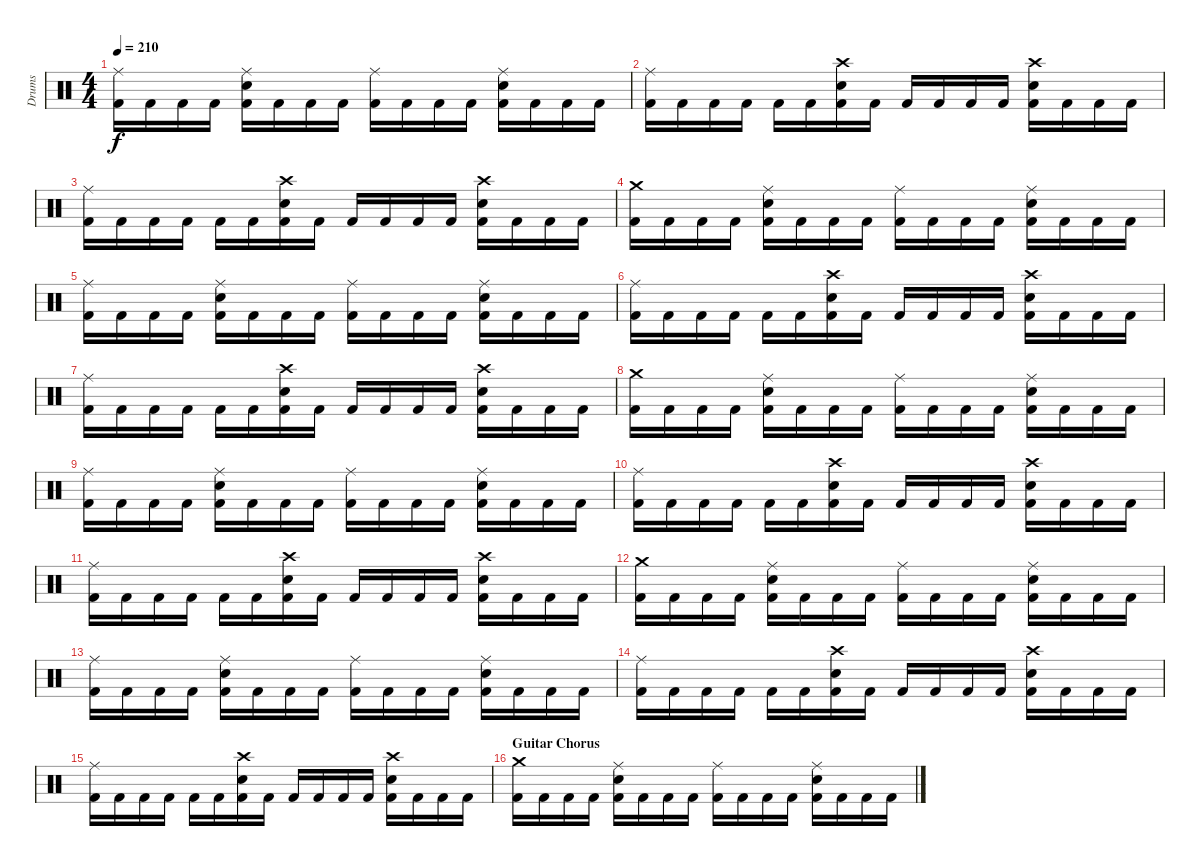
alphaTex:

\track ("Drums" "Drums") {instrument percussion}
\staff {score}
\articulation defaults
\ts (4 4)
\tempo 210
\clef neutral
\ks c
("Ride (middle)" "Kick (hit) 2").16{dy f} "Kick (hit) 2".16 "Kick (hit) 2".16 "Kick (hit) 2".16 ("Ride (middle)" "Snare (hit) 2" "Kick (hit) 2").16 "Kick (hit) 2".16 "Kick (hit) 2".16 "Kick (hit) 2".16 ("Ride (middle)" "Kick (hit) 2").16 "Kick (hit) 2".16 "Kick (hit) 2".16 "Kick (hit) 2".16 ("Ride (middle)" "Snare (hit) 2" "Kick (hit) 2").16 "Kick (hit) 2".16 "Kick (hit) 2".16 "Kick (hit) 2".16 |
("Ride (middle)" "Kick (hit) 2").16 "Kick (hit) 2".16 "Kick (hit) 2".16 "Kick (hit) 2".16 "Kick (hit) 2".16 "Kick (hit) 2".16 ("Crash high (hit)" "Snare (hit) 2" "Kick (hit) 2").16 "Kick (hit) 2".16 "Kick (hit) 2".16 "Kick (hit) 2".16 "Kick (hit) 2".16 "Kick (hit) 2".16 ("Crash high (hit)" "Snare (hit) 2" "Kick (hit) 2").16 "Kick (hit) 2".16 "Kick (hit) 2".16 "Kick (hit) 2".16 |
("Ride (middle)" "Kick (hit) 2").16 "Kick (hit) 2".16 "Kick (hit) 2".16 "Kick (hit) 2".16 "Kick (hit) 2".16 "Kick (hit) 2".16 ("Crash high (hit)" "Snare (hit) 2" "Kick (hit) 2").16 "Kick (hit) 2".16 "Kick (hit) 2".16 "Kick (hit) 2".16 "Kick (hit) 2".16 "Kick (hit) 2".16 ("Crash high (hit)" "Snare (hit) 2" "Kick (hit) 2").16 "Kick (hit) 2".16 "Kick (hit) 2".16 "Kick (hit) 2".16 |
("Crash medium (hit)" "Kick (hit) 2").16 "Kick (hit) 2".16 "Kick (hit) 2".16 "Kick (hit) 2".16 ("Ride (middle)" "Snare (hit) 2" "Kick (hit) 2").16 "Kick (hit) 2".16 "Kick (hit) 2".16 "Kick (hit) 2".16 ("Ride (middle)" "Kick (hit) 2").16 "Kick (hit) 2".16 "Kick (hit) 2".16 "Kick (hit) 2".16 ("Ride (middle)" "Snare (hit) 2" "Kick (hit) 2").16 "Kick (hit) 2".16 "Kick (hit) 2".16 "Kick (hit) 2".16 |
("Ride (middle)" "Kick (hit) 2").16 "Kick (hit) 2".16 "Kick (hit) 2".16 "Kick (hit) 2".16 ("Ride (middle)" "Snare (hit) 2" "Kick (hit) 2").16 "Kick (hit) 2".16 "Kick (hit) 2".16 "Kick (hit) 2".16 ("Ride (middle)" "Kick (hit) 2").16 "Kick (hit) 2".16 "Kick (hit) 2".16 "Kick (hit) 2".16 ("Ride (middle)" "Snare (hit) 2" "Kick (hit) 2").16 "Kick (hit) 2".16 "Kick (hit) 2".16 "Kick (hit) 2".16 |
("Ride (middle)" "Kick (hit) 2").16 "Kick (hit) 2".16 "Kick (hit) 2".16 "Kick (hit) 2".16 "Kick (hit) 2".16 "Kick (hit) 2".16 ("Crash high (hit)" "Snare (hit) 2" "Kick (hit) 2").16 "Kick (hit) 2".16 "Kick (hit) 2".16 "Kick (hit) 2".16 "Kick (hit) 2".16 "Kick (hit) 2".16 ("Crash high (hit)" "Snare (hit) 2" "Kick (hit) 2").16 "Kick (hit) 2".16 "Kick (hit) 2".16 "Kick (hit) 2".16 |
("Ride (middle)" "Kick (hit) 2").16 "Kick (hit) 2".16 "Kick (hit) 2".16 "Kick (hit) 2".16 "Kick (hit) 2".16 "Kick (hit) 2".16 ("Crash high (hit)" "Snare (hit) 2" "Kick (hit) 2").16 "Kick (hit) 2".16 "Kick (hit) 2".16 "Kick (hit) 2".16 "Kick (hit) 2".16 "Kick (hit) 2".16 ("Crash high (hit)" "Snare (hit) 2" "Kick (hit) 2").16 "Kick (hit) 2".16 "Kick (hit) 2".16 "Kick (hit) 2".16 |
("Crash medium (hit)" "Kick (hit) 2").16 "Kick (hit) 2".16 "Kick (hit) 2".16 "Kick (hit) 2".16 ("Ride (middle)" "Snare (hit) 2" "Kick (hit) 2").16 "Kick (hit) 2".16 "Kick (hit) 2".16 "Kick (hit) 2".16 ("Ride (middle)" "Kick (hit) 2").16 "Kick (hit) 2".16 "Kick (hit) 2".16 "Kick (hit) 2".16 ("Ride (middle)" "Snare (hit) 2" "Kick (hit) 2").16 "Kick (hit) 2".16 "Kick (hit) 2".16 "Kick (hit) 2".16 |
("Ride (middle)" "Kick (hit) 2").16 "Kick (hit) 2".16 "Kick (hit) 2".16 "Kick (hit) 2".16 ("Ride (middle)" "Snare (hit) 2" "Kick (hit) 2").16 "Kick (hit) 2".16 "Kick (hit) 2".16 "Kick (hit) 2".16 ("Ride (middle)" "Kick (hit) 2").16 "Kick (hit) 2".16 "Kick (hit) 2".16 "Kick (hit) 2".16 ("Ride (middle)" "Snare (hit) 2" "Kick (hit) 2").16 "Kick (hit) 2".16 "Kick (hit) 2".16 "Kick (hit) 2".16 |
("Ride (middle)" "Kick (hit) 2").16 "Kick (hit) 2".16 "Kick (hit) 2".16 "Kick (hit) 2".16 "Kick (hit) 2".16 "Kick (hit) 2".16 ("Crash high (hit)" "Snare (hit) 2" "Kick (hit) 2").16 "Kick (hit) 2".16 "Kick (hit) 2".16 "Kick (hit) 2".16 "Kick (hit) 2".16 "Kick (hit) 2".16 ("Crash high (hit)" "Snare (hit) 2" "Kick (hit) 2").16 "Kick (hit) 2".16 "Kick (hit) 2".16 "Kick (hit) 2".16 |
("Ride (middle)" "Kick (hit) 2").16 "Kick (hit) 2".16 "Kick (hit) 2".16 "Kick (hit) 2".16 "Kick (hit) 2".16 "Kick (hit) 2".16 ("Crash high (hit)" "Snare (hit) 2" "Kick (hit) 2").16 "Kick (hit) 2".16 "Kick (hit) 2".16 "Kick (hit) 2".16 "Kick (hit) 2".16 "Kick (hit) 2".16 ("Crash high (hit)" "Snare (hit) 2" "Kick (hit) 2").16 "Kick (hit) 2".16 "Kick (hit) 2".16 "Kick (hit) 2".16 |
("Crash medium (hit)" "Kick (hit) 2").16 "Kick (hit) 2".16 "Kick (hit) 2".16 "Kick (hit) 2".16 ("Ride (middle)" "Snare (hit) 2" "Kick (hit) 2").16 "Kick (hit) 2".16 "Kick (hit) 2".16 "Kick (hit) 2".16 ("Ride (middle)" "Kick (hit) 2").16 "Kick (hit) 2".16 "Kick (hit) 2".16 "Kick (hit) 2".16 ("Ride (middle)" "Snare (hit) 2" "Kick (hit) 2").16 "Kick (hit) 2".16 "Kick (hit) 2".16 "Kick (hit) 2".16 |
("Ride (middle)" "Kick (hit) 2").16 "Kick (hit) 2".16 "Kick (hit) 2".16 "Kick (hit) 2".16 ("Ride (middle)" "Snare (hit) 2" "Kick (hit) 2").16 "Kick (hit) 2".16 "Kick (hit) 2".16 "Kick (hit) 2".16 ("Ride (middle)" "Kick (hit) 2").16 "Kick (hit) 2".16 "Kick (hit) 2".16 "Kick (hit) 2".16 ("Ride (middle)" "Snare (hit) 2" "Kick (hit) 2").16 "Kick (hit) 2".16 "Kick (hit) 2".16 "Kick (hit) 2".16 |
("Ride (middle)" "Kick (hit) 2").16 "Kick (hit) 2".16 "Kick (hit) 2".16 "Kick (hit) 2".16 "Kick (hit) 2".16 "Kick (hit) 2".16 ("Crash high (hit)" "Snare (hit) 2" "Kick (hit) 2").16 "Kick (hit) 2".16 "Kick (hit) 2".16 "Kick (hit) 2".16 "Kick (hit) 2".16 "Kick (hit) 2".16 ("Crash high (hit)" "Snare (hit) 2" "Kick (hit) 2").16 "Kick (hit) 2".16 "Kick (hit) 2".16 "Kick (hit) 2".16 |
("Ride (middle)" "Kick (hit) 2").16 "Kick (hit) 2".16 "Kick (hit) 2".16 "Kick (hit) 2".16 "Kick (hit) 2".16 "Kick (hit) 2".16 ("Crash high (hit)" "Snare (hit) 2" "Kick (hit) 2").16 "Kick (hit) 2".16 "Kick (hit) 2".16 "Kick (hit) 2".16 "Kick (hit) 2".16 "Kick (hit) 2".16 ("Crash high (hit)" "Snare (hit) 2" "Kick (hit) 2").16 "Kick (hit) 2".16 "Kick (hit) 2".16 "Kick (hit) 2".16 |
\section ("" "Guitar Chorus")
("Crash medium (hit)" "Kick (hit) 2").16 "Kick (hit) 2".16 "Kick (hit) 2".16 "Kick (hit) 2".16 ("Ride (middle)" "Snare (hit) 2" "Kick (hit) 2").16 "Kick (hit) 2".16 "Kick (hit) 2".16 "Kick (hit) 2".16 ("Ride (middle)" "Kick (hit) 2").16 "Kick (hit) 2".16 "Kick (hit) 2".16 "Kick (hit) 2".16 ("Ride (middle)" "Snare (hit) 2" "Kick (hit) 2").16 "Kick (hit) 2".16 "Kick (hit) 2".16 "Kick (hit) 2".16
